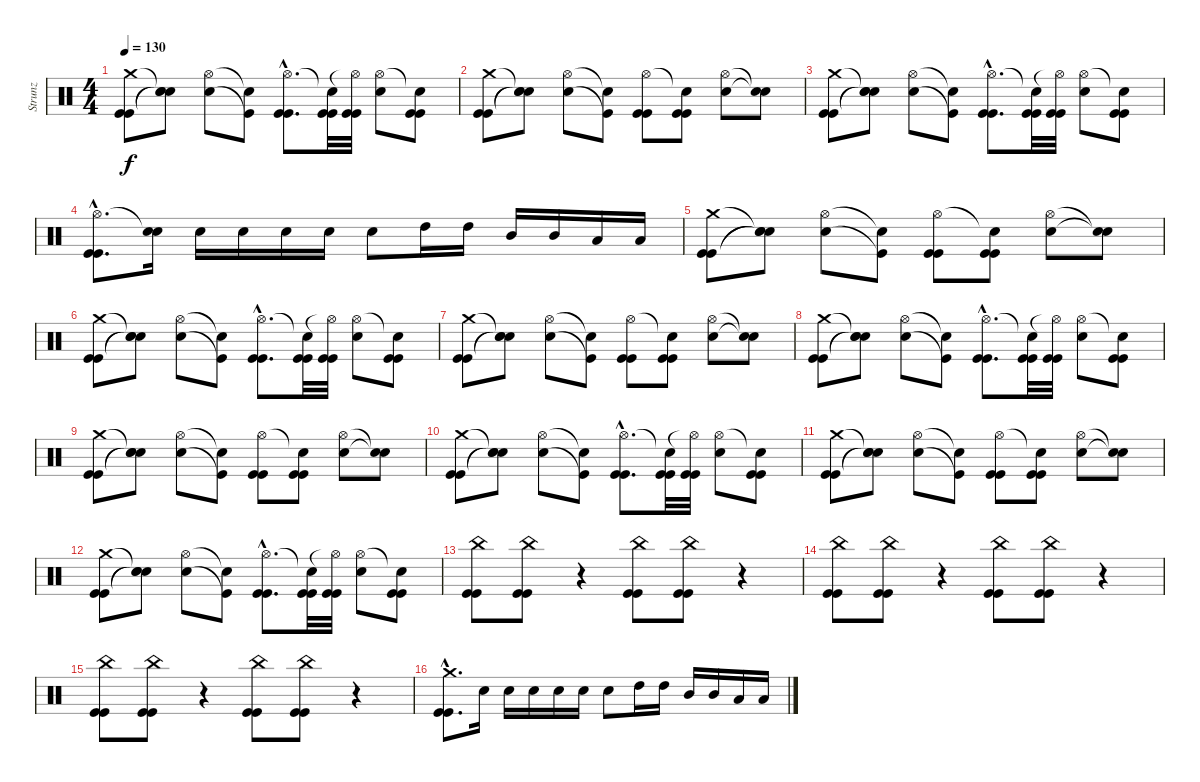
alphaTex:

\track ("Strunz" "Strunz") {instrument percussion}
\staff {score}
\articulation defaults
\ts (4 4)
\tempo 130
\clef neutral
\ks c
("Crash medium (hit)" "Kick (hit)" "Kick (hit)").8{dy f} ("Snare (hit)"{t} "Electric Snare (hit)"{t} "Snare (hit)"{t}).8 ("Hi-Hat (open)" "Electric Snare (hit)").8 ("Snare (hit)"{t} "Kick (hit)"{t}).8 ("Hi-Hat (open)"{hac} "Kick (hit)"{hac} "Kick (hit)"{hac}).8{d} ("Snare (hit)"{t} "Kick (hit)" "Kick (hit)").32 ("Hi-Hat (open)"{t} "Kick (hit)" "Kick (hit)").32 ("Hi-Hat (open)" "Electric Snare (hit)").8 ("Snare (hit)"{t} "Kick (hit)" "Kick (hit)").8 |
("Crash medium (hit)" "Kick (hit)" "Kick (hit)").8 ("Snare (hit)"{t} "Electric Snare (hit)"{t} "Snare (hit)"{t}).8 ("Hi-Hat (open)" "Electric Snare (hit)").8 ("Snare (hit)"{t} "Kick (hit)"{t}).8 ("Hi-Hat (open)" "Kick (hit)" "Kick (hit)").8 ("Snare (hit)"{t} "Kick (hit)" "Kick (hit)").8 ("Hi-Hat (open)" "Electric Snare (hit)").8 ("Snare (hit)"{t} "Snare (hit)"{t}).8 |
("Crash medium (hit)" "Kick (hit)" "Kick (hit)").8 ("Snare (hit)"{t} "Electric Snare (hit)"{t} "Snare (hit)"{t}).8 ("Hi-Hat (open)" "Electric Snare (hit)").8 ("Snare (hit)"{t} "Kick (hit)"{t}).8 ("Hi-Hat (open)"{hac} "Kick (hit)"{hac} "Kick (hit)"{hac}).8{d} ("Snare (hit)"{t} "Kick (hit)" "Kick (hit)").32 ("Hi-Hat (open)"{t} "Kick (hit)" "Kick (hit)").32 ("Hi-Hat (open)" "Electric Snare (hit)").8 ("Snare (hit)"{t} "Kick (hit)" "Kick (hit)").8 |
("Hi-Hat (open)"{hac} "Kick (hit)"{hac} "Kick (hit)"{hac}).8{d} ("Snare (hit)"{t} "Electric Snare (hit)").16 "Electric Snare (hit)".16 "Electric Snare (hit)".16 "Electric Snare (hit)".16 "Electric Snare (hit)".16 "Electric Snare (hit)".8 "High Tom (hit)".16 "High Tom (hit)".16 "Mid Tom (hit)".16 "Mid Tom (hit)".16 "Low Tom (hit)".16 "Low Tom (hit)".16 |
("Crash medium (hit)" "Kick (hit)" "Kick (hit)").8 ("Snare (hit)"{t} "Electric Snare (hit)"{t} "Snare (hit)"{t}).8 ("Hi-Hat (open)" "Electric Snare (hit)").8 ("Snare (hit)"{t} "Kick (hit)"{t}).8 ("Hi-Hat (open)" "Kick (hit)" "Kick (hit)").8 ("Snare (hit)"{t} "Kick (hit)" "Kick (hit)").8 ("Hi-Hat (open)" "Electric Snare (hit)").8 ("Snare (hit)"{t} "Snare (hit)"{t}).8 |
("Crash medium (hit)" "Kick (hit)" "Kick (hit)").8 ("Snare (hit)"{t} "Electric Snare (hit)"{t} "Snare (hit)"{t}).8 ("Hi-Hat (open)" "Electric Snare (hit)").8 ("Snare (hit)"{t} "Kick (hit)"{t}).8 ("Hi-Hat (open)"{hac} "Kick (hit)"{hac} "Kick (hit)"{hac}).8{d} ("Snare (hit)"{t} "Kick (hit)" "Kick (hit)").32 ("Hi-Hat (open)"{t} "Kick (hit)" "Kick (hit)").32 ("Hi-Hat (open)" "Electric Snare (hit)").8 ("Snare (hit)"{t} "Kick (hit)" "Kick (hit)").8 |
("Crash medium (hit)" "Kick (hit)" "Kick (hit)").8 ("Snare (hit)"{t} "Electric Snare (hit)"{t} "Snare (hit)"{t}).8 ("Hi-Hat (open)" "Electric Snare (hit)").8 ("Snare (hit)"{t} "Kick (hit)"{t}).8 ("Hi-Hat (open)" "Kick (hit)" "Kick (hit)").8 ("Snare (hit)"{t} "Kick (hit)" "Kick (hit)").8 ("Hi-Hat (open)" "Electric Snare (hit)").8 ("Snare (hit)"{t} "Snare (hit)"{t}).8 |
("Crash medium (hit)" "Kick (hit)" "Kick (hit)").8 ("Snare (hit)"{t} "Electric Snare (hit)"{t} "Snare (hit)"{t}).8 ("Hi-Hat (open)" "Electric Snare (hit)").8 ("Snare (hit)"{t} "Kick (hit)"{t}).8 ("Hi-Hat (open)"{hac} "Kick (hit)"{hac} "Kick (hit)"{hac}).8{d} ("Snare (hit)"{t} "Kick (hit)" "Kick (hit)").32 ("Hi-Hat (open)"{t} "Kick (hit)" "Kick (hit)").32 ("Hi-Hat (open)" "Electric Snare (hit)").8 ("Snare (hit)"{t} "Kick (hit)" "Kick (hit)").8 |
("Crash medium (hit)" "Kick (hit)" "Kick (hit)").8 ("Snare (hit)"{t} "Electric Snare (hit)"{t} "Snare (hit)"{t}).8 ("Hi-Hat (open)" "Electric Snare (hit)").8 ("Snare (hit)"{t} "Kick (hit)"{t}).8 ("Hi-Hat (open)" "Kick (hit)" "Kick (hit)").8 ("Snare (hit)"{t} "Kick (hit)" "Kick (hit)").8 ("Hi-Hat (open)" "Electric Snare (hit)").8 ("Snare (hit)"{t} "Snare (hit)"{t}).8 |
("Crash medium (hit)" "Kick (hit)" "Kick (hit)").8 ("Snare (hit)"{t} "Electric Snare (hit)"{t} "Snare (hit)"{t}).8 ("Hi-Hat (open)" "Electric Snare (hit)").8 ("Snare (hit)"{t} "Kick (hit)"{t}).8 ("Hi-Hat (open)"{hac} "Kick (hit)"{hac} "Kick (hit)"{hac}).8{d} ("Snare (hit)"{t} "Kick (hit)" "Kick (hit)").32 ("Hi-Hat (open)"{t} "Kick (hit)" "Kick (hit)").32 ("Hi-Hat (open)" "Electric Snare (hit)").8 ("Snare (hit)"{t} "Kick (hit)" "Kick (hit)").8 |
("Crash medium (hit)" "Kick (hit)" "Kick (hit)").8 ("Snare (hit)"{t} "Electric Snare (hit)"{t} "Snare (hit)"{t}).8 ("Hi-Hat (open)" "Electric Snare (hit)").8 ("Snare (hit)"{t} "Kick (hit)"{t}).8 ("Hi-Hat (open)" "Kick (hit)" "Kick (hit)").8 ("Snare (hit)"{t} "Kick (hit)" "Kick (hit)").8 ("Hi-Hat (open)" "Electric Snare (hit)").8 ("Snare (hit)"{t} "Snare (hit)"{t}).8 |
("Crash medium (hit)" "Kick (hit)" "Kick (hit)").8 ("Snare (hit)"{t} "Electric Snare (hit)"{t} "Snare (hit)"{t}).8 ("Hi-Hat (open)" "Electric Snare (hit)").8 ("Snare (hit)"{t} "Kick (hit)"{t}).8 ("Hi-Hat (open)"{hac} "Kick (hit)"{hac} "Kick (hit)"{hac}).8{d} ("Snare (hit)"{t} "Kick (hit)" "Kick (hit)").32 ("Hi-Hat (open)"{t} "Kick (hit)" "Kick (hit)").32 ("Hi-Hat (open)" "Electric Snare (hit)").8 ("Snare (hit)"{t} "Kick (hit)" "Kick (hit)").8 |
("China (hit)" "Kick (hit)" "Kick (hit)").8 ("China (hit)" "Kick (hit)" "Kick (hit)").8 r.4 ("China (hit)" "Kick (hit)" "Kick (hit)").8 ("China (hit)" "Kick (hit)" "Kick (hit)").8 r.4 |
("China (hit)" "Kick (hit)" "Kick (hit)").8 ("China (hit)" "Kick (hit)" "Kick (hit)").8 r.4 ("China (hit)" "Kick (hit)" "Kick (hit)").8 ("China (hit)" "Kick (hit)" "Kick (hit)").8 r.4 |
("China (hit)" "Kick (hit)" "Kick (hit)").8 ("China (hit)" "Kick (hit)" "Kick (hit)").8 r.4 ("China (hit)" "Kick (hit)" "Kick (hit)").8 ("China (hit)" "Kick (hit)" "Kick (hit)").8 r.4 |
("Crash medium (hit)"{hac} "Kick (hit)"{hac} "Kick (hit)"{hac}).8{d} "Electric Snare (hit)".16 "Electric Snare (hit)".16 "Electric Snare (hit)".16 "Electric Snare (hit)".16 "Electric Snare (hit)".16 "Electric Snare (hit)".8 "High Tom (hit)".16 "High Tom (hit)".16 "Mid Tom (hit)".16 "Mid Tom (hit)".16 "Low Tom (hit)".16 "Low Tom (hit)".16
